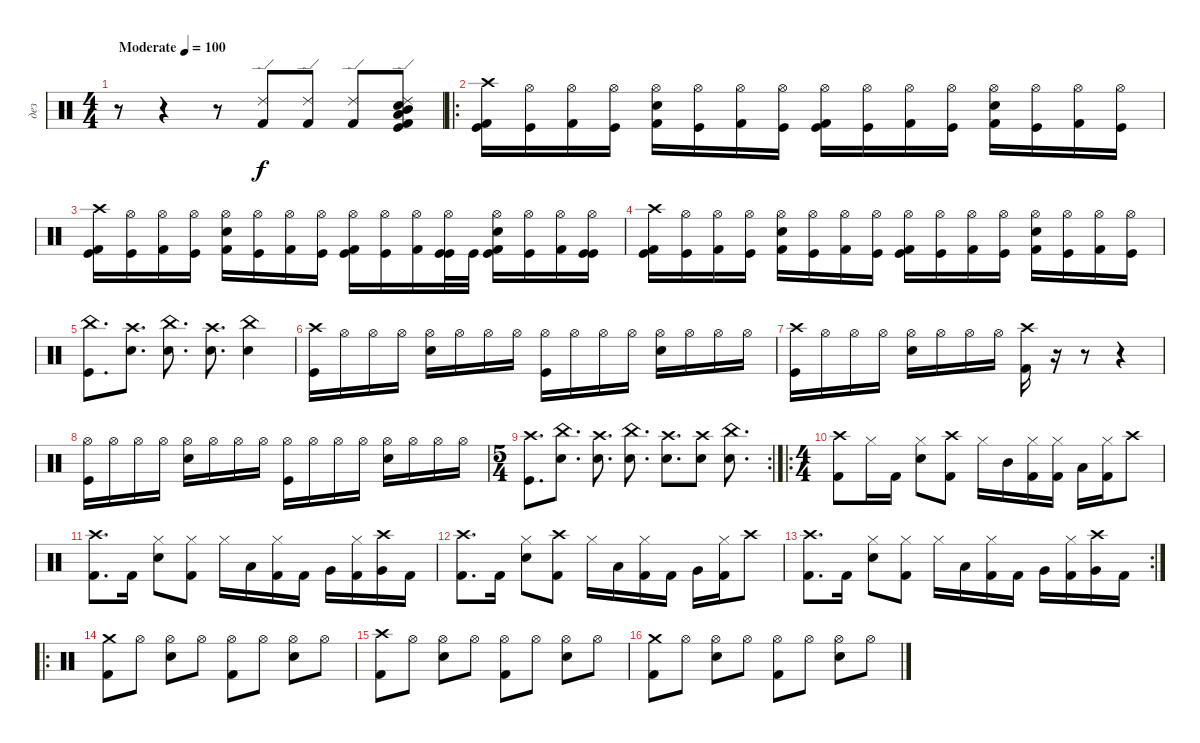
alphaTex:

\track ("дез" "дез") {instrument percussion}
\staff {score}
\articulation defaults
\ts (4 4)
\tempo (100 "Moderate")
\clef neutral
\ks c
r.8{dy f} r.4 r.8 ("Ride (edge) 2" "Kick (hit) 2").8 ("Ride (edge) 2" "Kick (hit) 2").8 ("Ride (edge) 2" "Kick (hit) 2").8 ("Ride (edge) 2" "Mid Tom (hit)" "Snare (hit) 2" "Low Tom (hit)" "Kick (hit)" "Kick (hit) 2").8 |
\ro
("Crash high (hit)" "Kick (hit) 2" "Kick (hit)").16 ("Hi-Hat (open)" "Kick (hit)").16 ("Hi-Hat (open)" "Kick (hit) 2").16 ("Hi-Hat (open)" "Kick (hit)").16 ("Hi-Hat (open)" "Kick (hit) 2" "Electric Snare (hit)").16 ("Hi-Hat (open)" "Kick (hit)").16 ("Hi-Hat (open)" "Kick (hit) 2").16 ("Hi-Hat (open)" "Kick (hit)").16 ("Hi-Hat (open)" "Kick (hit) 2" "Kick (hit)").16 ("Hi-Hat (open)" "Kick (hit)").16 ("Hi-Hat (open)" "Kick (hit) 2").16 ("Hi-Hat (open)" "Kick (hit)").16 ("Hi-Hat (open)" "Kick (hit) 2" "Electric Snare (hit)").16 ("Hi-Hat (open)" "Kick (hit)").16 ("Hi-Hat (open)" "Kick (hit) 2").16 ("Hi-Hat (open)" "Kick (hit)").16 |
("Crash high (hit)" "Kick (hit) 2" "Kick (hit)").16 ("Hi-Hat (open)" "Kick (hit)").16 ("Hi-Hat (open)" "Kick (hit) 2").16 ("Hi-Hat (open)" "Kick (hit)").16 ("Hi-Hat (open)" "Kick (hit) 2" "Electric Snare (hit)").16 ("Hi-Hat (open)" "Kick (hit)").16 ("Hi-Hat (open)" "Kick (hit) 2").16 ("Hi-Hat (open)" "Kick (hit)").16 ("Hi-Hat (open)" "Kick (hit) 2" "Kick (hit)").16 ("Hi-Hat (open)" "Kick (hit)").16 ("Hi-Hat (open)" "Kick (hit) 2").16 ("Hi-Hat (open)" "Kick (hit)" "Kick (hit)").32 "Kick (hit)".32 ("Hi-Hat (open)" "Kick (hit) 2" "Electric Snare (hit)" "Kick (hit)").16 ("Hi-Hat (open)" "Kick (hit)").16 ("Hi-Hat (open)" "Kick (hit) 2").16 ("Hi-Hat (open)" "Kick (hit)" "Kick (hit)").16 |
("Crash high (hit)" "Kick (hit) 2" "Kick (hit)").16 ("Hi-Hat (open)" "Kick (hit)").16 ("Hi-Hat (open)" "Kick (hit) 2").16 ("Hi-Hat (open)" "Kick (hit)").16 ("Hi-Hat (open)" "Kick (hit) 2" "Electric Snare (hit)").16 ("Hi-Hat (open)" "Kick (hit)").16 ("Hi-Hat (open)" "Kick (hit) 2").16 ("Hi-Hat (open)" "Kick (hit)").16 ("Hi-Hat (open)" "Kick (hit) 2" "Kick (hit)").16 ("Hi-Hat (open)" "Kick (hit)").16 ("Hi-Hat (open)" "Kick (hit) 2").16 ("Hi-Hat (open)" "Kick (hit)").16 ("Hi-Hat (open)" "Kick (hit) 2" "Electric Snare (hit)").16 ("Hi-Hat (open)" "Kick (hit)").16 ("Hi-Hat (open)" "Kick (hit) 2").16 ("Hi-Hat (open)" "Kick (hit)").16 |
("China (hit)" "Kick (hit)").8{d} ("Crash high (hit)" "Electric Snare (hit)").8{d} ("China (hit)" "Electric Snare (hit)").8{d} ("Crash high (hit)" "Electric Snare (hit)").8{d} ("China (hit)" "Electric Snare (hit)").4 |
("Crash high (hit)" "Kick (hit)").16 "Hi-Hat (open)".16 "Hi-Hat (open)".16 "Hi-Hat (open)".16 ("Hi-Hat (open)" "Electric Snare (hit)").16 "Hi-Hat (open)".16 "Hi-Hat (open)".16 "Hi-Hat (open)".16 ("Hi-Hat (open)" "Kick (hit)").16 "Hi-Hat (open)".16 "Hi-Hat (open)".16 "Hi-Hat (open)".16 ("Hi-Hat (open)" "Electric Snare (hit)").16 "Hi-Hat (open)".16 "Hi-Hat (open)".16 "Hi-Hat (open)".16 |
("Crash high (hit)" "Kick (hit)").16 "Hi-Hat (open)".16 "Hi-Hat (open)".16 "Hi-Hat (open)".16 ("Hi-Hat (open)" "Electric Snare (hit)").16 "Hi-Hat (open)".16 "Hi-Hat (open)".16 "Hi-Hat (open)".16 ("Crash high (hit)" "Kick (hit) 2").16 r.16 r.8 r.4 |
("Hi-Hat (open)" "Kick (hit)").16 "Hi-Hat (open)".16 "Hi-Hat (open)".16 "Hi-Hat (open)".16 ("Hi-Hat (open)" "Electric Snare (hit)").16 "Hi-Hat (open)".16 "Hi-Hat (open)".16 "Hi-Hat (open)".16 ("Hi-Hat (open)" "Kick (hit)").16 "Hi-Hat (open)".16 "Hi-Hat (open)".16 "Hi-Hat (open)".16 ("Hi-Hat (open)" "Electric Snare (hit)").16 "Hi-Hat (open)".16 "Hi-Hat (open)".16 "Hi-Hat (open)".16 |
\rc 2
\ts (5 4)
("Crash high (hit)" "Kick (hit)").8{d} ("China (hit)" "Electric Snare (hit)").8{d} ("Crash high (hit)" "Electric Snare (hit)").8{d} ("China (hit)" "Electric Snare (hit)").8{d} ("Crash high (hit)" "Electric Snare (hit)").8{d} ("Crash high (hit)" "Electric Snare (hit)").8 ("China (hit)" "Electric Snare (hit)").8{d} |
\ro
\ts (4 4)
("Crash high (hit)" "Kick (hit) 2").8 "Hi-Hat (closed)".16 "Kick (hit) 2".16 ("Hi-Hat (closed)" "Electric Snare (hit)").8 ("Crash high (hit)" "Kick (hit) 2").8 "Hi-Hat (closed)".16 "Mid Tom (hit)".16 ("Hi-Hat (closed)" "Kick (hit) 2").16 ("Hi-Hat (closed)" "Kick (hit) 2").16 "Low Tom (hit)".16 ("Hi-Hat (closed)" "Kick (hit) 2").16 "Crash high (hit)".8 |
("Crash high (hit)" "Kick (hit) 2").8{d} "Kick (hit) 2".16 ("Hi-Hat (closed)" "Electric Snare (hit)").8 ("Hi-Hat (closed)" "Kick (hit) 2").8 "Hi-Hat (closed)".16 "Low Tom (hit)".16 ("Hi-Hat (closed)" "Kick (hit) 2").16 "Kick (hit) 2".16 "Very Low Tom (hit)".16 ("Hi-Hat (closed)" "Kick (hit) 2").16 ("Crash high (hit)" "Very Low Tom (hit)").16 "Kick (hit) 2".16 |
("Crash high (hit)" "Kick (hit) 2").8{d} "Kick (hit) 2".16 ("Hi-Hat (closed)" "Electric Snare (hit)").8 ("Crash high (hit)" "Kick (hit) 2").8 "Hi-Hat (closed)".16 "Low Tom (hit)".16 ("Hi-Hat (closed)" "Kick (hit) 2").16 "Kick (hit) 2".16 "Very Low Tom (hit)".16 ("Hi-Hat (closed)" "Kick (hit) 2").16 "Crash high (hit)".8 |
\rc 2
("Crash high (hit)" "Kick (hit) 2").8{d} "Kick (hit) 2".16 ("Hi-Hat (closed)" "Electric Snare (hit)").8 ("Hi-Hat (closed)" "Kick (hit) 2").8 "Hi-Hat (closed)".16 "Low Tom (hit)".16 ("Hi-Hat (closed)" "Kick (hit) 2").16 "Kick (hit) 2".16 "Very Low Tom (hit)".16 ("Hi-Hat (closed)" "Kick (hit) 2").16 ("Crash high (hit)" "Very Low Tom (hit)").16 "Kick (hit) 2".16 |
\ro
("Crash medium (hit)" "Kick (hit) 2").8 "Hi-Hat (open)".8 ("Hi-Hat (open)" "Electric Snare (hit)").8 "Hi-Hat (open)".8 ("Hi-Hat (open)" "Kick (hit) 2").8 "Hi-Hat (open)".8 ("Hi-Hat (open)" "Electric Snare (hit)").8 "Hi-Hat (open)".8 |
("Crash high (hit)" "Kick (hit) 2").8 "Hi-Hat (open)".8 ("Hi-Hat (open)" "Electric Snare (hit)").8 "Hi-Hat (open)".8 ("Hi-Hat (open)" "Kick (hit) 2").8 "Hi-Hat (open)".8 ("Hi-Hat (open)" "Electric Snare (hit)").8 "Hi-Hat (open)".8 |
("Crash medium (hit)" "Kick (hit) 2").8 "Hi-Hat (open)".8 ("Hi-Hat (open)" "Electric Snare (hit)").8 "Hi-Hat (open)".8 ("Hi-Hat (open)" "Kick (hit) 2").8 "Hi-Hat (open)".8 ("Hi-Hat (open)" "Electric Snare (hit)").8 "Hi-Hat (open)".8
